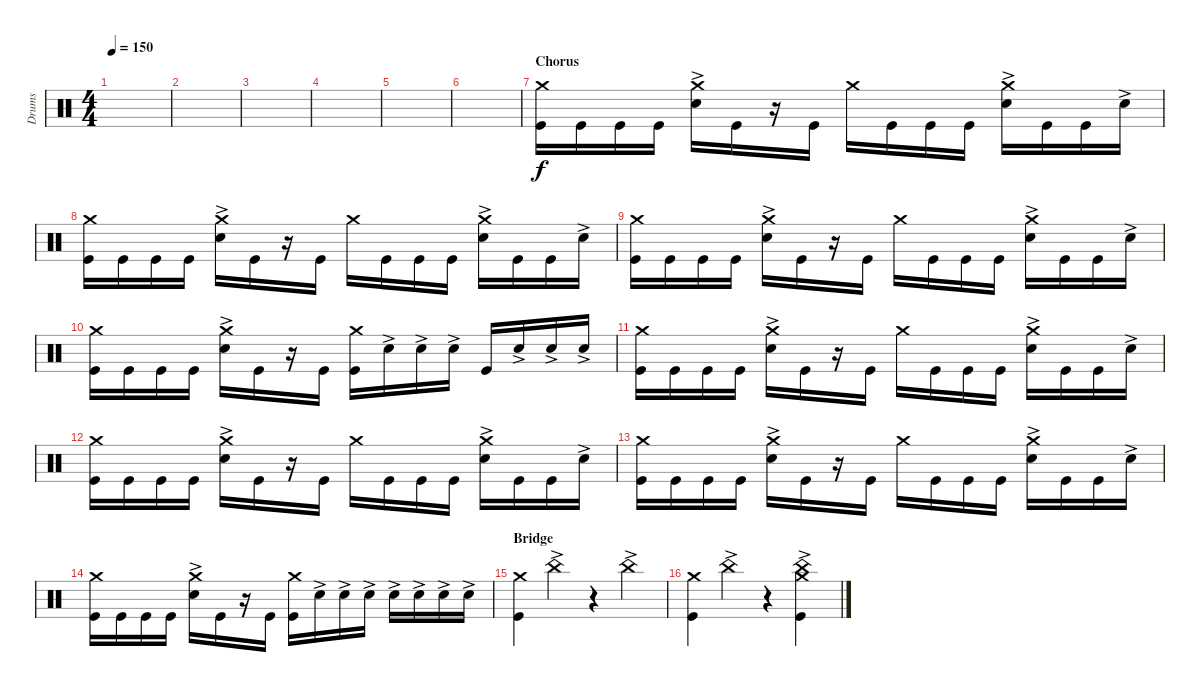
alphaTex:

\track ("Drums" "Drums") {instrument percussion}
\staff {score}
\articulation defaults
\ts (4 4)
\tempo 150
\clef neutral
\ks c
|
|
|
|
|
|
\section ("" "Chorus")
("Crash medium (hit)" "Kick (hit)").16 "Kick (hit)".16 "Kick (hit)".16 "Kick (hit)".16 ("Crash medium (hit)" "Snare (hit) 2"{ac}).16 "Kick (hit)".16 r.16 "Kick (hit)".16 "Crash medium (hit)".16 "Kick (hit)".16 "Kick (hit)".16 "Kick (hit)".16 ("Crash medium (hit)" "Snare (hit) 2"{ac}).16 "Kick (hit)".16 "Kick (hit)".16 "Snare (hit) 2"{ac}.16 |
("Crash medium (hit)" "Kick (hit)").16 "Kick (hit)".16 "Kick (hit)".16 "Kick (hit)".16 ("Crash medium (hit)" "Snare (hit) 2"{ac}).16 "Kick (hit)".16 r.16 "Kick (hit)".16 "Crash medium (hit)".16 "Kick (hit)".16 "Kick (hit)".16 "Kick (hit)".16 ("Crash medium (hit)" "Snare (hit) 2"{ac}).16 "Kick (hit)".16 "Kick (hit)".16 "Snare (hit) 2"{ac}.16 |
("Crash medium (hit)" "Kick (hit)").16 "Kick (hit)".16 "Kick (hit)".16 "Kick (hit)".16 ("Crash medium (hit)" "Snare (hit) 2"{ac}).16 "Kick (hit)".16 r.16 "Kick (hit)".16 "Crash medium (hit)".16 "Kick (hit)".16 "Kick (hit)".16 "Kick (hit)".16 ("Crash medium (hit)" "Snare (hit) 2"{ac}).16 "Kick (hit)".16 "Kick (hit)".16 "Snare (hit) 2"{ac}.16 |
("Crash medium (hit)" "Kick (hit)").16 "Kick (hit)".16 "Kick (hit)".16 "Kick (hit)".16 ("Crash medium (hit)" "Snare (hit) 2"{ac}).16 "Kick (hit)".16 r.16 "Kick (hit)".16 ("Kick (hit)" "Crash medium (hit)").16 "Snare (hit) 2"{ac}.16 "Snare (hit) 2"{ac}.16 "Snare (hit) 2"{ac}.16 "Kick (hit)".16 "Snare (hit) 2"{ac}.16 "Snare (hit) 2"{ac}.16 "Snare (hit) 2"{ac}.16 |
("Crash medium (hit)" "Kick (hit)").16 "Kick (hit)".16 "Kick (hit)".16 "Kick (hit)".16 ("Crash medium (hit)" "Snare (hit) 2"{ac}).16 "Kick (hit)".16 r.16 "Kick (hit)".16 "Crash medium (hit)".16 "Kick (hit)".16 "Kick (hit)".16 "Kick (hit)".16 ("Crash medium (hit)" "Snare (hit) 2"{ac}).16 "Kick (hit)".16 "Kick (hit)".16 "Snare (hit) 2"{ac}.16 |
("Crash medium (hit)" "Kick (hit)").16 "Kick (hit)".16 "Kick (hit)".16 "Kick (hit)".16 ("Crash medium (hit)" "Snare (hit) 2"{ac}).16 "Kick (hit)".16 r.16 "Kick (hit)".16 "Crash medium (hit)".16 "Kick (hit)".16 "Kick (hit)".16 "Kick (hit)".16 ("Crash medium (hit)" "Snare (hit) 2"{ac}).16 "Kick (hit)".16 "Kick (hit)".16 "Snare (hit) 2"{ac}.16 |
("Crash medium (hit)" "Kick (hit)").16 "Kick (hit)".16 "Kick (hit)".16 "Kick (hit)".16 ("Crash medium (hit)" "Snare (hit) 2"{ac}).16 "Kick (hit)".16 r.16 "Kick (hit)".16 "Crash medium (hit)".16 "Kick (hit)".16 "Kick (hit)".16 "Kick (hit)".16 ("Crash medium (hit)" "Snare (hit) 2"{ac}).16 "Kick (hit)".16 "Kick (hit)".16 "Snare (hit) 2"{ac}.16 |
("Crash medium (hit)" "Kick (hit)").16 "Kick (hit)".16 "Kick (hit)".16 "Kick (hit)".16 ("Crash medium (hit)" "Snare (hit) 2"{ac}).16 "Kick (hit)".16 r.16 "Kick (hit)".16 ("Kick (hit)" "Crash medium (hit)").16 "Snare (hit) 2"{ac}.16 "Snare (hit) 2"{ac}.16 "Snare (hit) 2"{ac}.16 "Snare (hit) 2"{ac}.16 "Snare (hit) 2"{ac}.16 "Snare (hit) 2"{ac}.16 "Snare (hit) 2"{ac}.16 |
\section ("" "Bridge")
("Kick (hit)" "Crash medium (hit)").4 "China (hit)"{ac}.4 r.4 "China (hit)"{ac}.4 |
("Crash medium (hit)" "Kick (hit)").4 "China (hit)"{ac}.4 r.4 ("China (hit)"{ac} "Kick (hit)" "Crash medium (hit)").4
